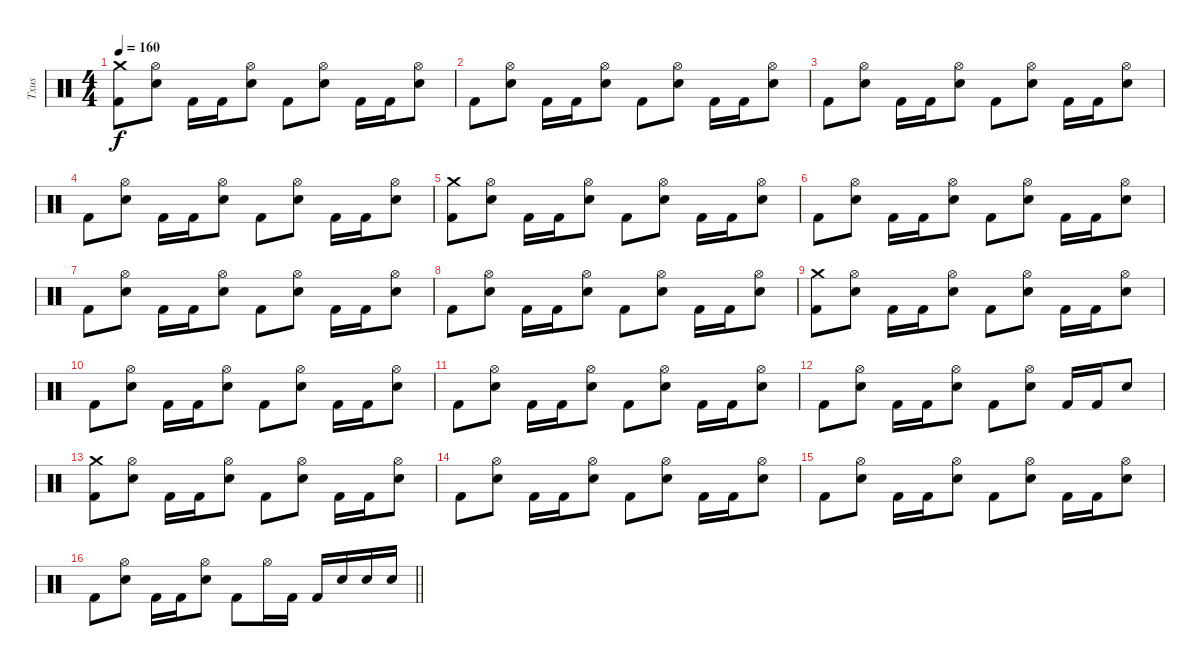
\track ("Txus" "Txus") {instrument percussion}
\staff {score}
\articulation defaults
\ts (4 4)
\tempo 160
\clef neutral
\ks c
("Crash medium (hit)" "Kick (hit) 2").8{dy f} ("Hi-Hat (open)" "Snare (hit) 2").8 "Kick (hit) 2".16 "Kick (hit) 2".16 ("Hi-Hat (open)" "Snare (hit) 2").8 "Kick (hit) 2".8 ("Hi-Hat (open)" "Snare (hit) 2").8 "Kick (hit) 2".16 "Kick (hit) 2".16 ("Hi-Hat (open)" "Snare (hit) 2").8 |
"Kick (hit) 2".8 ("Hi-Hat (open)" "Snare (hit) 2").8 "Kick (hit) 2".16 "Kick (hit) 2".16 ("Hi-Hat (open)" "Snare (hit) 2").8 "Kick (hit) 2".8 ("Hi-Hat (open)" "Snare (hit) 2").8 "Kick (hit) 2".16 "Kick (hit) 2".16 ("Hi-Hat (open)" "Snare (hit) 2").8 |
"Kick (hit) 2".8 ("Hi-Hat (open)" "Snare (hit) 2").8 "Kick (hit) 2".16 "Kick (hit) 2".16 ("Hi-Hat (open)" "Snare (hit) 2").8 "Kick (hit) 2".8 ("Hi-Hat (open)" "Snare (hit) 2").8 "Kick (hit) 2".16 "Kick (hit) 2".16 ("Hi-Hat (open)" "Snare (hit) 2").8 |
"Kick (hit) 2".8 ("Hi-Hat (open)" "Snare (hit) 2").8 "Kick (hit) 2".16 "Kick (hit) 2".16 ("Hi-Hat (open)" "Snare (hit) 2").8 "Kick (hit) 2".8 ("Hi-Hat (open)" "Snare (hit) 2").8 "Kick (hit) 2".16 "Kick (hit) 2".16 ("Hi-Hat (open)" "Snare (hit) 2").8 |
("Crash medium (hit)" "Kick (hit) 2").8 ("Hi-Hat (open)" "Snare (hit) 2").8 "Kick (hit) 2".16 "Kick (hit) 2".16 ("Hi-Hat (open)" "Snare (hit) 2").8 "Kick (hit) 2".8 ("Hi-Hat (open)" "Snare (hit) 2").8 "Kick (hit) 2".16 "Kick (hit) 2".16 ("Hi-Hat (open)" "Snare (hit) 2").8 |
"Kick (hit) 2".8 ("Hi-Hat (open)" "Snare (hit) 2").8 "Kick (hit) 2".16 "Kick (hit) 2".16 ("Hi-Hat (open)" "Snare (hit) 2").8 "Kick (hit) 2".8 ("Hi-Hat (open)" "Snare (hit) 2").8 "Kick (hit) 2".16 "Kick (hit) 2".16 ("Hi-Hat (open)" "Snare (hit) 2").8 |
"Kick (hit) 2".8 ("Hi-Hat (open)" "Snare (hit) 2").8 "Kick (hit) 2".16 "Kick (hit) 2".16 ("Hi-Hat (open)" "Snare (hit) 2").8 "Kick (hit) 2".8 ("Hi-Hat (open)" "Snare (hit) 2").8 "Kick (hit) 2".16 "Kick (hit) 2".16 ("Hi-Hat (open)" "Snare (hit) 2").8 |
"Kick (hit) 2".8 ("Hi-Hat (open)" "Snare (hit) 2").8 "Kick (hit) 2".16 "Kick (hit) 2".16 ("Hi-Hat (open)" "Snare (hit) 2").8 "Kick (hit) 2".8 ("Hi-Hat (open)" "Snare (hit) 2").8 "Kick (hit) 2".16 "Kick (hit) 2".16 ("Hi-Hat (open)" "Snare (hit) 2").8 |
("Crash medium (hit)" "Kick (hit) 2").8 ("Hi-Hat (open)" "Snare (hit) 2").8 "Kick (hit) 2".16 "Kick (hit) 2".16 ("Hi-Hat (open)" "Snare (hit) 2").8 "Kick (hit) 2".8 ("Hi-Hat (open)" "Snare (hit) 2").8 "Kick (hit) 2".16 "Kick (hit) 2".16 ("Hi-Hat (open)" "Snare (hit) 2").8 |
"Kick (hit) 2".8 ("Hi-Hat (open)" "Snare (hit) 2").8 "Kick (hit) 2".16 "Kick (hit) 2".16 ("Hi-Hat (open)" "Snare (hit) 2").8 "Kick (hit) 2".8 ("Hi-Hat (open)" "Snare (hit) 2").8 "Kick (hit) 2".16 "Kick (hit) 2".16 ("Hi-Hat (open)" "Snare (hit) 2").8 |
"Kick (hit) 2".8 ("Hi-Hat (open)" "Snare (hit) 2").8 "Kick (hit) 2".16 "Kick (hit) 2".16 ("Hi-Hat (open)" "Snare (hit) 2").8 "Kick (hit) 2".8 ("Hi-Hat (open)" "Snare (hit) 2").8 "Kick (hit) 2".16 "Kick (hit) 2".16 ("Hi-Hat (open)" "Snare (hit) 2").8 |
"Kick (hit) 2".8 ("Hi-Hat (open)" "Snare (hit) 2").8 "Kick (hit) 2".16 "Kick (hit) 2".16 ("Hi-Hat (open)" "Snare (hit) 2").8 "Kick (hit) 2".8 ("Hi-Hat (open)" "Snare (hit) 2").8 "Kick (hit) 2".16 "Kick (hit) 2".16 "Snare (hit) 2".8 |
("Crash medium (hit)" "Kick (hit) 2").8 ("Hi-Hat (open)" "Snare (hit) 2").8 "Kick (hit) 2".16 "Kick (hit) 2".16 ("Hi-Hat (open)" "Snare (hit) 2").8 "Kick (hit) 2".8 ("Hi-Hat (open)" "Snare (hit) 2").8 "Kick (hit) 2".16 "Kick (hit) 2".16 ("Hi-Hat (open)" "Snare (hit) 2").8 |
"Kick (hit) 2".8 ("Hi-Hat (open)" "Snare (hit) 2").8 "Kick (hit) 2".16 "Kick (hit) 2".16 ("Hi-Hat (open)" "Snare (hit) 2").8 "Kick (hit) 2".8 ("Hi-Hat (open)" "Snare (hit) 2").8 "Kick (hit) 2".16 "Kick (hit) 2".16 ("Hi-Hat (open)" "Snare (hit) 2").8 |
"Kick (hit) 2".8 ("Hi-Hat (open)" "Snare (hit) 2").8 "Kick (hit) 2".16 "Kick (hit) 2".16 ("Hi-Hat (open)" "Snare (hit) 2").8 "Kick (hit) 2".8 ("Hi-Hat (open)" "Snare (hit) 2").8 "Kick (hit) 2".16 "Kick (hit) 2".16 ("Hi-Hat (open)" "Snare (hit) 2").8 |
\barLineRight lightlight "Kick (hit) 2".8
("Hi-Hat (open)" "Snare (hit) 2").8 "Kick (hit) 2".16 "Kick (hit) 2".16 ("Hi-Hat (open)" "Snare (hit) 2").8 "Kick (hit) 2".8 "Hi-Hat (open)".16 "Kick (hit) 2".16 "Kick (hit) 2".16 "Snare (hit) 2".16 "Snare (hit) 2".16 "Snare (hit) 2".16
